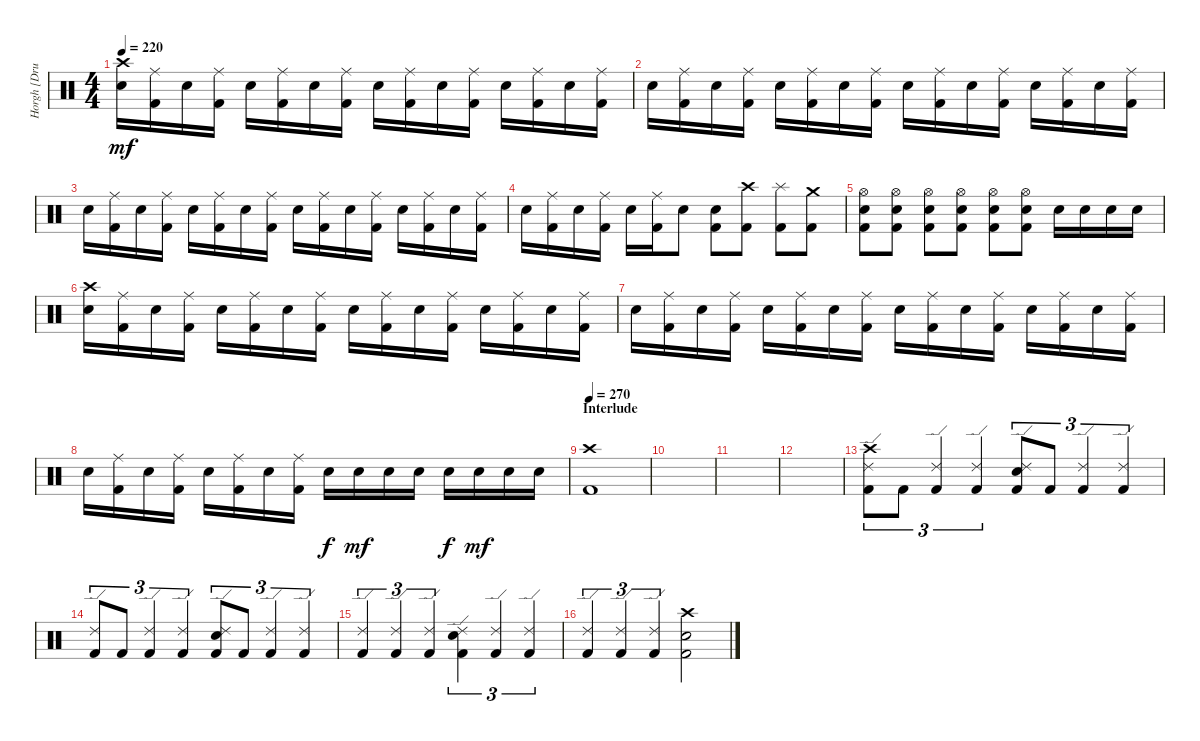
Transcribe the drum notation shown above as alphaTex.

\track ("Horgh [Drums]" "Horgh [Dru") {instrument percussion}
\staff {score}
\articulation defaults
\ts (4 4)
\tempo 220
\clef neutral
\ks c
("Crash high (hit)" "Electric Snare (hit)").16{dy mf} ("Ride (middle)" "Kick (hit) 2").16 "Electric Snare (hit)".16 ("Ride (middle)" "Kick (hit) 2").16 "Electric Snare (hit)".16 ("Ride (middle)" "Kick (hit) 2").16 "Electric Snare (hit)".16 ("Ride (middle)" "Kick (hit) 2").16 "Electric Snare (hit)".16 ("Ride (middle)" "Kick (hit) 2").16 "Electric Snare (hit)".16 ("Ride (middle)" "Kick (hit) 2").16 "Electric Snare (hit)".16 ("Ride (middle)" "Kick (hit) 2").16 "Electric Snare (hit)".16 ("Ride (middle)" "Kick (hit) 2").16 |
"Electric Snare (hit)".16 ("Ride (middle)" "Kick (hit) 2").16 "Electric Snare (hit)".16 ("Ride (middle)" "Kick (hit) 2").16 "Electric Snare (hit)".16 ("Ride (middle)" "Kick (hit) 2").16 "Electric Snare (hit)".16 ("Ride (middle)" "Kick (hit) 2").16 "Electric Snare (hit)".16 ("Ride (middle)" "Kick (hit) 2").16 "Electric Snare (hit)".16 ("Ride (middle)" "Kick (hit) 2").16 "Electric Snare (hit)".16 ("Ride (middle)" "Kick (hit) 2").16 "Electric Snare (hit)".16 ("Ride (middle)" "Kick (hit) 2").16 |
"Electric Snare (hit)".16 ("Ride (middle)" "Kick (hit) 2").16 "Electric Snare (hit)".16 ("Ride (middle)" "Kick (hit) 2").16 "Electric Snare (hit)".16 ("Ride (middle)" "Kick (hit) 2").16 "Electric Snare (hit)".16 ("Ride (middle)" "Kick (hit) 2").16 "Electric Snare (hit)".16 ("Ride (middle)" "Kick (hit) 2").16 "Electric Snare (hit)".16 ("Ride (middle)" "Kick (hit) 2").16 "Electric Snare (hit)".16 ("Ride (middle)" "Kick (hit) 2").16 "Electric Snare (hit)".16 ("Ride (middle)" "Kick (hit) 2").16 |
"Electric Snare (hit)".16 ("Ride (middle)" "Kick (hit) 2").16 "Electric Snare (hit)".16 ("Ride (middle)" "Kick (hit) 2").16 "Electric Snare (hit)".16 ("Ride (middle)" "Kick (hit) 2").16 "Electric Snare (hit)".8 ("Electric Snare (hit)" "Kick (hit) 2").8 ("Crash high (hit)" "Kick (hit) 2").8 ("Splash (hit)" "Kick (hit) 2").8 ("Crash medium (hit)" "Kick (hit) 2").8 |
("Hi-Hat (open)" "Electric Snare (hit)" "Kick (hit) 2").8 ("Hi-Hat (open)" "Electric Snare (hit)" "Kick (hit) 2").8 ("Hi-Hat (open)" "Electric Snare (hit)" "Kick (hit) 2").8 ("Hi-Hat (open)" "Electric Snare (hit)" "Kick (hit) 2").8 ("Hi-Hat (open)" "Electric Snare (hit)" "Kick (hit) 2").8 ("Hi-Hat (open)" "Electric Snare (hit)" "Kick (hit) 2").8 "Electric Snare (hit)".16 "Electric Snare (hit)".16 "Electric Snare (hit)".16 "Electric Snare (hit)".16 |
("Crash high (hit)" "Electric Snare (hit)").16 ("Ride (middle)" "Kick (hit) 2").16 "Electric Snare (hit)".16 ("Ride (middle)" "Kick (hit) 2").16 "Electric Snare (hit)".16 ("Ride (middle)" "Kick (hit) 2").16 "Electric Snare (hit)".16 ("Ride (middle)" "Kick (hit) 2").16 "Electric Snare (hit)".16 ("Ride (middle)" "Kick (hit) 2").16 "Electric Snare (hit)".16 ("Ride (middle)" "Kick (hit) 2").16 "Electric Snare (hit)".16 ("Ride (middle)" "Kick (hit) 2").16 "Electric Snare (hit)".16 ("Ride (middle)" "Kick (hit) 2").16 |
"Electric Snare (hit)".16 ("Ride (middle)" "Kick (hit) 2").16 "Electric Snare (hit)".16 ("Ride (middle)" "Kick (hit) 2").16 "Electric Snare (hit)".16 ("Ride (middle)" "Kick (hit) 2").16 "Electric Snare (hit)".16 ("Ride (middle)" "Kick (hit) 2").16 "Electric Snare (hit)".16 ("Ride (middle)" "Kick (hit) 2").16 "Electric Snare (hit)".16 ("Ride (middle)" "Kick (hit) 2").16 "Electric Snare (hit)".16 ("Ride (middle)" "Kick (hit) 2").16 "Electric Snare (hit)".16 ("Ride (middle)" "Kick (hit) 2").16 |
"Electric Snare (hit)".16 ("Ride (middle)" "Kick (hit) 2").16 "Electric Snare (hit)".16 ("Ride (middle)" "Kick (hit) 2").16 "Electric Snare (hit)".16 ("Ride (middle)" "Kick (hit) 2").16 "Electric Snare (hit)".16 ("Ride (middle)" "Kick (hit) 2").16 "Electric Snare (hit)".16{dy f} "Electric Snare (hit)".16{dy mf} "Electric Snare (hit)".16 "Electric Snare (hit)".16 "Electric Snare (hit)".16{dy f} "Electric Snare (hit)".16{dy mf} "Electric Snare (hit)".16 "Electric Snare (hit)".16 |
\section ("" "Interlude")
\tempo 270
("Crash high (hit)" "Kick (hit) 2").1 |
|
|
|
("Crash high (hit)" "Ride (edge) 2" "Kick (hit) 2").8{tu (3 2)} "Kick (hit) 2".8{tu (3 2)} ("Ride (edge) 2" "Kick (hit) 2").4{tu (3 2)} ("Ride (edge) 2" "Kick (hit) 2").4{tu (3 2)} ("Ride (edge) 2" "Electric Snare (hit)" "Kick (hit) 2").8{tu (3 2)} "Kick (hit) 2".8{tu (3 2)} ("Ride (edge) 2" "Kick (hit) 2").4{tu (3 2)} ("Ride (edge) 2" "Kick (hit) 2").4{tu (3 2)} |
("Ride (edge) 2" "Kick (hit) 2").8{tu (3 2)} "Kick (hit) 2".8{tu (3 2)} ("Ride (edge) 2" "Kick (hit) 2").4{tu (3 2)} ("Ride (edge) 2" "Kick (hit) 2").4{tu (3 2)} ("Ride (edge) 2" "Electric Snare (hit)" "Kick (hit) 2").8{tu (3 2)} "Kick (hit) 2".8{tu (3 2)} ("Ride (edge) 2" "Kick (hit) 2").4{tu (3 2)} ("Ride (edge) 2" "Kick (hit) 2").4{tu (3 2)} |
("Ride (edge) 2" "Kick (hit) 2").4{tu (3 2)} ("Ride (edge) 2" "Kick (hit) 2").4{tu (3 2)} ("Ride (edge) 2" "Kick (hit) 2").4{tu (3 2)} ("Ride (edge) 2" "Electric Snare (hit)" "Kick (hit) 2").4{tu (3 2)} ("Ride (edge) 2" "Kick (hit) 2").4{tu (3 2)} ("Ride (edge) 2" "Kick (hit) 2").4{tu (3 2)} |
("Ride (edge) 2" "Kick (hit) 2").4{tu (3 2)} ("Ride (edge) 2" "Kick (hit) 2").4{tu (3 2)} ("Ride (edge) 2" "Kick (hit) 2").4{tu (3 2)} ("Crash high (hit)" "Electric Snare (hit)" "Kick (hit) 2").2
